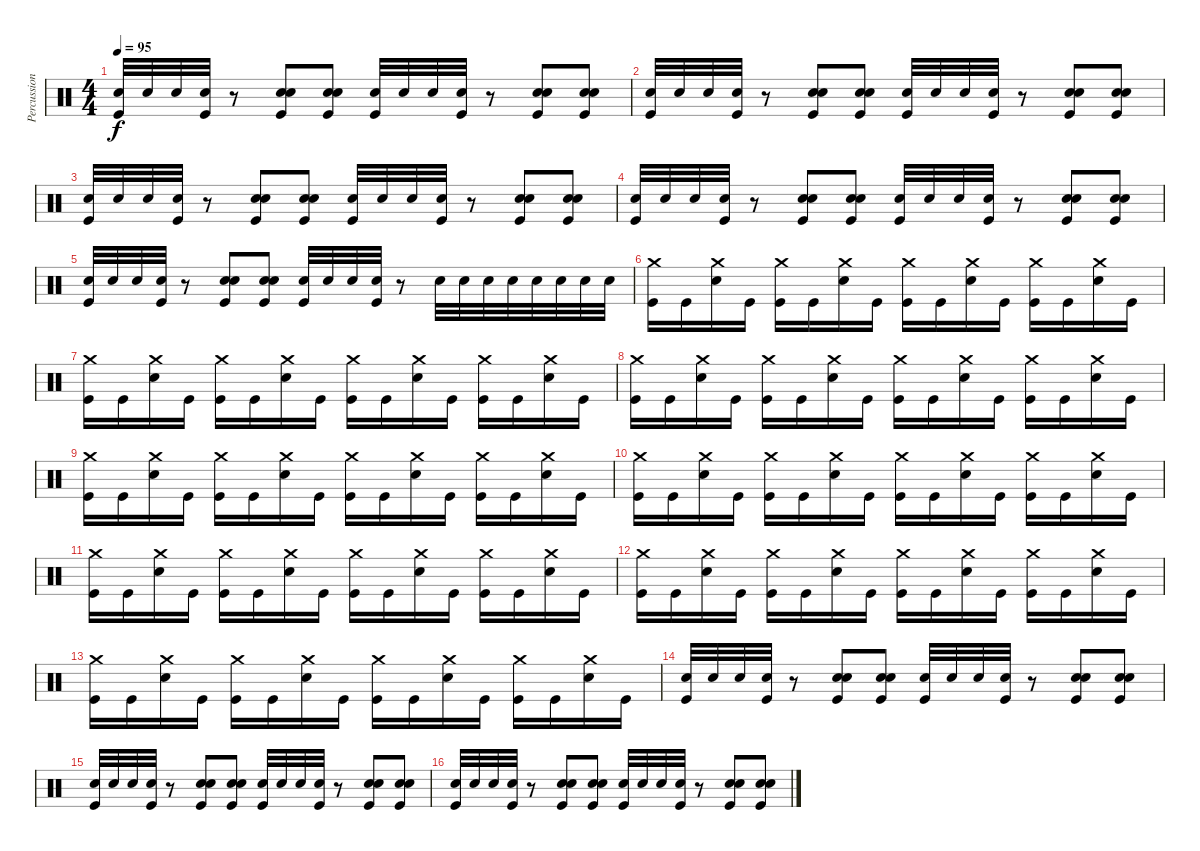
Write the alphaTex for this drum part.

\track ("Percussion" "Percussion") {instrument percussion}
\staff {score}
\articulation defaults
\ts (4 4)
\tempo 95
\clef neutral
\ks c
("Electric Snare (hit)" "Kick (hit)").32{dy f} "Electric Snare (hit)".32 "Electric Snare (hit)".32 ("Electric Snare (hit)" "Kick (hit)").32 r.8 ("Electric Snare (hit)" "Electric Snare (hit)" "Kick (hit)").8 ("Electric Snare (hit)" "Electric Snare (hit)" "Kick (hit)").8 ("Electric Snare (hit)" "Kick (hit)").32 "Electric Snare (hit)".32 "Electric Snare (hit)".32 ("Electric Snare (hit)" "Kick (hit)").32 r.8 ("Electric Snare (hit)" "Electric Snare (hit)" "Kick (hit)").8 ("Electric Snare (hit)" "Electric Snare (hit)" "Kick (hit)").8 |
("Electric Snare (hit)" "Kick (hit)").32 "Electric Snare (hit)".32 "Electric Snare (hit)".32 ("Electric Snare (hit)" "Kick (hit)").32 r.8 ("Electric Snare (hit)" "Electric Snare (hit)" "Kick (hit)").8 ("Electric Snare (hit)" "Electric Snare (hit)" "Kick (hit)").8 ("Electric Snare (hit)" "Kick (hit)").32 "Electric Snare (hit)".32 "Electric Snare (hit)".32 ("Electric Snare (hit)" "Kick (hit)").32 r.8 ("Electric Snare (hit)" "Electric Snare (hit)" "Kick (hit)").8 ("Electric Snare (hit)" "Electric Snare (hit)" "Kick (hit)").8 |
("Electric Snare (hit)" "Kick (hit)").32 "Electric Snare (hit)".32 "Electric Snare (hit)".32 ("Electric Snare (hit)" "Kick (hit)").32 r.8 ("Electric Snare (hit)" "Electric Snare (hit)" "Kick (hit)").8 ("Electric Snare (hit)" "Electric Snare (hit)" "Kick (hit)").8 ("Electric Snare (hit)" "Kick (hit)").32 "Electric Snare (hit)".32 "Electric Snare (hit)".32 ("Electric Snare (hit)" "Kick (hit)").32 r.8 ("Electric Snare (hit)" "Electric Snare (hit)" "Kick (hit)").8 ("Electric Snare (hit)" "Electric Snare (hit)" "Kick (hit)").8 |
("Electric Snare (hit)" "Kick (hit)").32 "Electric Snare (hit)".32 "Electric Snare (hit)".32 ("Electric Snare (hit)" "Kick (hit)").32 r.8 ("Electric Snare (hit)" "Electric Snare (hit)" "Kick (hit)").8 ("Electric Snare (hit)" "Electric Snare (hit)" "Kick (hit)").8 ("Electric Snare (hit)" "Kick (hit)").32 "Electric Snare (hit)".32 "Electric Snare (hit)".32 ("Electric Snare (hit)" "Kick (hit)").32 r.8 ("Electric Snare (hit)" "Electric Snare (hit)" "Kick (hit)").8 ("Electric Snare (hit)" "Electric Snare (hit)" "Kick (hit)").8 |
("Electric Snare (hit)" "Kick (hit)").32 "Electric Snare (hit)".32 "Electric Snare (hit)".32 ("Electric Snare (hit)" "Kick (hit)").32 r.8 ("Electric Snare (hit)" "Electric Snare (hit)" "Kick (hit)").8 ("Electric Snare (hit)" "Electric Snare (hit)" "Kick (hit)").8 ("Electric Snare (hit)" "Kick (hit)").32 "Electric Snare (hit)".32 "Electric Snare (hit)".32 ("Electric Snare (hit)" "Kick (hit)").32 r.8 "Electric Snare (hit)".32 "Electric Snare (hit)".32 "Electric Snare (hit)".32 "Electric Snare (hit)".32 "Electric Snare (hit)".32 "Electric Snare (hit)".32 "Electric Snare (hit)".32 "Electric Snare (hit)".32 |
("Crash medium (hit)" "Kick (hit)").16 "Kick (hit)".16 ("Crash medium (hit)" "Electric Snare (hit)").16 "Kick (hit)".16 ("Crash medium (hit)" "Kick (hit)").16 "Kick (hit)".16 ("Crash medium (hit)" "Electric Snare (hit)").16 "Kick (hit)".16 ("Crash medium (hit)" "Kick (hit)").16 "Kick (hit)".16 ("Crash medium (hit)" "Electric Snare (hit)").16 "Kick (hit)".16 ("Crash medium (hit)" "Kick (hit)").16 "Kick (hit)".16 ("Crash medium (hit)" "Electric Snare (hit)").16 "Kick (hit)".16 |
("Crash medium (hit)" "Kick (hit)").16 "Kick (hit)".16 ("Crash medium (hit)" "Electric Snare (hit)").16 "Kick (hit)".16 ("Crash medium (hit)" "Kick (hit)").16 "Kick (hit)".16 ("Crash medium (hit)" "Electric Snare (hit)").16 "Kick (hit)".16 ("Crash medium (hit)" "Kick (hit)").16 "Kick (hit)".16 ("Crash medium (hit)" "Electric Snare (hit)").16 "Kick (hit)".16 ("Crash medium (hit)" "Kick (hit)").16 "Kick (hit)".16 ("Crash medium (hit)" "Electric Snare (hit)").16 "Kick (hit)".16 |
("Crash medium (hit)" "Kick (hit)").16 "Kick (hit)".16 ("Crash medium (hit)" "Electric Snare (hit)").16 "Kick (hit)".16 ("Crash medium (hit)" "Kick (hit)").16 "Kick (hit)".16 ("Crash medium (hit)" "Electric Snare (hit)").16 "Kick (hit)".16 ("Crash medium (hit)" "Kick (hit)").16 "Kick (hit)".16 ("Crash medium (hit)" "Electric Snare (hit)").16 "Kick (hit)".16 ("Crash medium (hit)" "Kick (hit)").16 "Kick (hit)".16 ("Crash medium (hit)" "Electric Snare (hit)").16 "Kick (hit)".16 |
("Crash medium (hit)" "Kick (hit)").16 "Kick (hit)".16 ("Crash medium (hit)" "Electric Snare (hit)").16 "Kick (hit)".16 ("Crash medium (hit)" "Kick (hit)").16 "Kick (hit)".16 ("Crash medium (hit)" "Electric Snare (hit)").16 "Kick (hit)".16 ("Crash medium (hit)" "Kick (hit)").16 "Kick (hit)".16 ("Crash medium (hit)" "Electric Snare (hit)").16 "Kick (hit)".16 ("Crash medium (hit)" "Kick (hit)").16 "Kick (hit)".16 ("Crash medium (hit)" "Electric Snare (hit)").16 "Kick (hit)".16 |
("Crash medium (hit)" "Kick (hit)").16 "Kick (hit)".16 ("Crash medium (hit)" "Electric Snare (hit)").16 "Kick (hit)".16 ("Crash medium (hit)" "Kick (hit)").16 "Kick (hit)".16 ("Crash medium (hit)" "Electric Snare (hit)").16 "Kick (hit)".16 ("Crash medium (hit)" "Kick (hit)").16 "Kick (hit)".16 ("Crash medium (hit)" "Electric Snare (hit)").16 "Kick (hit)".16 ("Crash medium (hit)" "Kick (hit)").16 "Kick (hit)".16 ("Crash medium (hit)" "Electric Snare (hit)").16 "Kick (hit)".16 |
("Crash medium (hit)" "Kick (hit)").16 "Kick (hit)".16 ("Crash medium (hit)" "Electric Snare (hit)").16 "Kick (hit)".16 ("Crash medium (hit)" "Kick (hit)").16 "Kick (hit)".16 ("Crash medium (hit)" "Electric Snare (hit)").16 "Kick (hit)".16 ("Crash medium (hit)" "Kick (hit)").16 "Kick (hit)".16 ("Crash medium (hit)" "Electric Snare (hit)").16 "Kick (hit)".16 ("Crash medium (hit)" "Kick (hit)").16 "Kick (hit)".16 ("Crash medium (hit)" "Electric Snare (hit)").16 "Kick (hit)".16 |
("Crash medium (hit)" "Kick (hit)").16 "Kick (hit)".16 ("Crash medium (hit)" "Electric Snare (hit)").16 "Kick (hit)".16 ("Crash medium (hit)" "Kick (hit)").16 "Kick (hit)".16 ("Crash medium (hit)" "Electric Snare (hit)").16 "Kick (hit)".16 ("Crash medium (hit)" "Kick (hit)").16 "Kick (hit)".16 ("Crash medium (hit)" "Electric Snare (hit)").16 "Kick (hit)".16 ("Crash medium (hit)" "Kick (hit)").16 "Kick (hit)".16 ("Crash medium (hit)" "Electric Snare (hit)").16 "Kick (hit)".16 |
("Crash medium (hit)" "Kick (hit)").16 "Kick (hit)".16 ("Crash medium (hit)" "Electric Snare (hit)").16 "Kick (hit)".16 ("Crash medium (hit)" "Kick (hit)").16 "Kick (hit)".16 ("Crash medium (hit)" "Electric Snare (hit)").16 "Kick (hit)".16 ("Crash medium (hit)" "Kick (hit)").16 "Kick (hit)".16 ("Crash medium (hit)" "Electric Snare (hit)").16 "Kick (hit)".16 ("Crash medium (hit)" "Kick (hit)").16 "Kick (hit)".16 ("Crash medium (hit)" "Electric Snare (hit)").16 "Kick (hit)".16 |
("Electric Snare (hit)" "Kick (hit)").32 "Electric Snare (hit)".32 "Electric Snare (hit)".32 ("Electric Snare (hit)" "Kick (hit)").32 r.8 ("Electric Snare (hit)" "Electric Snare (hit)" "Kick (hit)").8 ("Electric Snare (hit)" "Electric Snare (hit)" "Kick (hit)").8 ("Electric Snare (hit)" "Kick (hit)").32 "Electric Snare (hit)".32 "Electric Snare (hit)".32 ("Electric Snare (hit)" "Kick (hit)").32 r.8 ("Electric Snare (hit)" "Electric Snare (hit)" "Kick (hit)").8 ("Electric Snare (hit)" "Electric Snare (hit)" "Kick (hit)").8 |
("Electric Snare (hit)" "Kick (hit)").32 "Electric Snare (hit)".32 "Electric Snare (hit)".32 ("Electric Snare (hit)" "Kick (hit)").32 r.8 ("Electric Snare (hit)" "Electric Snare (hit)" "Kick (hit)").8 ("Electric Snare (hit)" "Electric Snare (hit)" "Kick (hit)").8 ("Electric Snare (hit)" "Kick (hit)").32 "Electric Snare (hit)".32 "Electric Snare (hit)".32 ("Electric Snare (hit)" "Kick (hit)").32 r.8 ("Electric Snare (hit)" "Electric Snare (hit)" "Kick (hit)").8 ("Electric Snare (hit)" "Electric Snare (hit)" "Kick (hit)").8 |
("Electric Snare (hit)" "Kick (hit)").32 "Electric Snare (hit)".32 "Electric Snare (hit)".32 ("Electric Snare (hit)" "Kick (hit)").32 r.8 ("Electric Snare (hit)" "Electric Snare (hit)" "Kick (hit)").8 ("Electric Snare (hit)" "Electric Snare (hit)" "Kick (hit)").8 ("Electric Snare (hit)" "Kick (hit)").32 "Electric Snare (hit)".32 "Electric Snare (hit)".32 ("Electric Snare (hit)" "Kick (hit)").32 r.8 ("Electric Snare (hit)" "Electric Snare (hit)" "Kick (hit)").8 ("Electric Snare (hit)" "Electric Snare (hit)" "Kick (hit)").8
